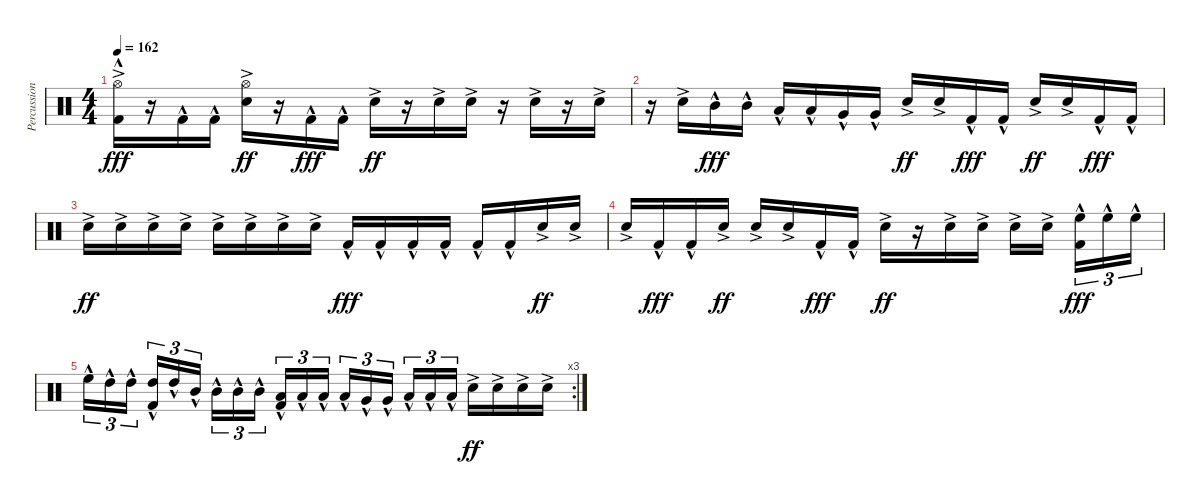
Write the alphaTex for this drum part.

\track ("Percussion" "Percussion") {instrument percussion}
\staff {score}
\articulation defaults
\ts (4 4)
\tempo 162
\clef neutral
\ks c
("Hi-Hat (open)"{ac} "Kick (hit) 2"{hac}).16{dy fff} r.16 "Kick (hit) 2"{hac}.16 "Kick (hit) 2"{hac}.16 ("Hi-Hat (open)"{ac} "Snare (hit) 2"{ac}).16{dy ff} r.16 "Kick (hit) 2"{hac}.16{dy fff} "Kick (hit) 2"{hac}.16 "Snare (hit) 2"{ac}.16{dy ff} r.16 "Snare (hit) 2"{ac}.16 "Snare (hit) 2"{ac}.16 r.16 "Snare (hit) 2"{ac}.16 r.16 "Snare (hit) 2"{ac}.16 |
r.16 "Snare (hit) 2"{ac}.16 "Mid Tom (hit)"{hac}.16{dy fff} "Mid Tom (hit)"{hac}.16 "Low Tom (hit)"{hac}.16 "Low Tom (hit)"{hac}.16 "Very Low Tom (hit)"{hac}.16 "Very Low Tom (hit)"{hac}.16 "Snare (hit) 2"{ac}.16{dy ff} "Snare (hit) 2"{ac}.16 "Kick (hit) 2"{hac}.16{dy fff} "Kick (hit) 2"{hac}.16 "Snare (hit) 2"{ac}.16{dy ff} "Snare (hit) 2"{ac}.16 "Kick (hit) 2"{hac}.16{dy fff} "Kick (hit) 2"{hac}.16 |
"Snare (hit) 2"{ac}.16{dy ff} "Snare (hit) 2"{ac}.16 "Snare (hit) 2"{ac}.16 "Snare (hit) 2"{ac}.16 "Snare (hit) 2"{ac}.16 "Snare (hit) 2"{ac}.16 "Snare (hit) 2"{ac}.16 "Snare (hit) 2"{ac}.16 "Kick (hit) 2"{hac}.16{dy fff} "Kick (hit) 2"{hac}.16 "Kick (hit) 2"{hac}.16 "Kick (hit) 2"{hac}.16 "Kick (hit) 2"{hac}.16 "Kick (hit) 2"{hac}.16 "Snare (hit) 2"{ac}.16{dy ff} "Snare (hit) 2"{ac}.16 |
"Snare (hit) 2"{ac}.16 "Kick (hit) 2"{hac}.16{dy fff} "Kick (hit) 2"{hac}.16 "Snare (hit) 2"{ac}.16{dy ff} "Snare (hit) 2"{ac}.16 "Snare (hit) 2"{ac}.16 "Kick (hit) 2"{hac}.16{dy fff} "Kick (hit) 2"{hac}.16 "Snare (hit) 2"{ac}.16{dy ff} r.16 "Snare (hit) 2"{ac}.16 "Snare (hit) 2"{ac}.16 "Snare (hit) 2"{ac}.16 "Snare (hit) 2"{ac}.16{beam splitsecondary} ("High Floor Tom (hit)"{hac} "Kick (hit) 2"{hac}).16{tu (3 2) dy fff} "High Floor Tom (hit)"{hac}.16{tu (3 2)} "High Floor Tom (hit)"{hac}.16{tu (3 2)} |
\rc 3 "High Floor Tom (hit)"{hac}.16{tu (3 2)} "High Tom (hit)"{hac}.16{tu (3 2)} "High Tom (hit)"{hac}.16{tu (3 2) beam splitsecondary}
("High Tom (hit)"{hac} "Kick (hit) 2"{hac}).16{tu (3 2)} "High Tom (hit)"{hac}.16{tu (3 2)} "Mid Tom (hit)"{hac}.16{tu (3 2)} "Mid Tom (hit)"{hac}.16{tu (3 2)} "Mid Tom (hit)"{hac}.16{tu (3 2)} "Mid Tom (hit)"{hac}.16{tu (3 2) beam splitsecondary} ("Low Tom (hit)"{hac} "Kick (hit) 2"{hac}).16{tu (3 2)} "Low Tom (hit)"{hac}.16{tu (3 2)} "Low Tom (hit)"{hac}.16{tu (3 2)} "Low Tom (hit)"{hac}.16{tu (3 2)} "Very Low Tom (hit)"{hac}.16{tu (3 2)} "Very Low Tom (hit)"{hac}.16{tu (3 2) beam splitsecondary} "Low Floor Tom (hit)"{hac}.16{tu (3 2)} "Low Floor Tom (hit)"{hac}.16{tu (3 2)} "Low Floor Tom (hit)"{hac}.16{tu (3 2)} "Snare (hit) 2"{ac}.16{dy ff} "Snare (hit) 2"{ac}.16 "Snare (hit) 2"{ac}.16 "Snare (hit) 2"{ac}.16
